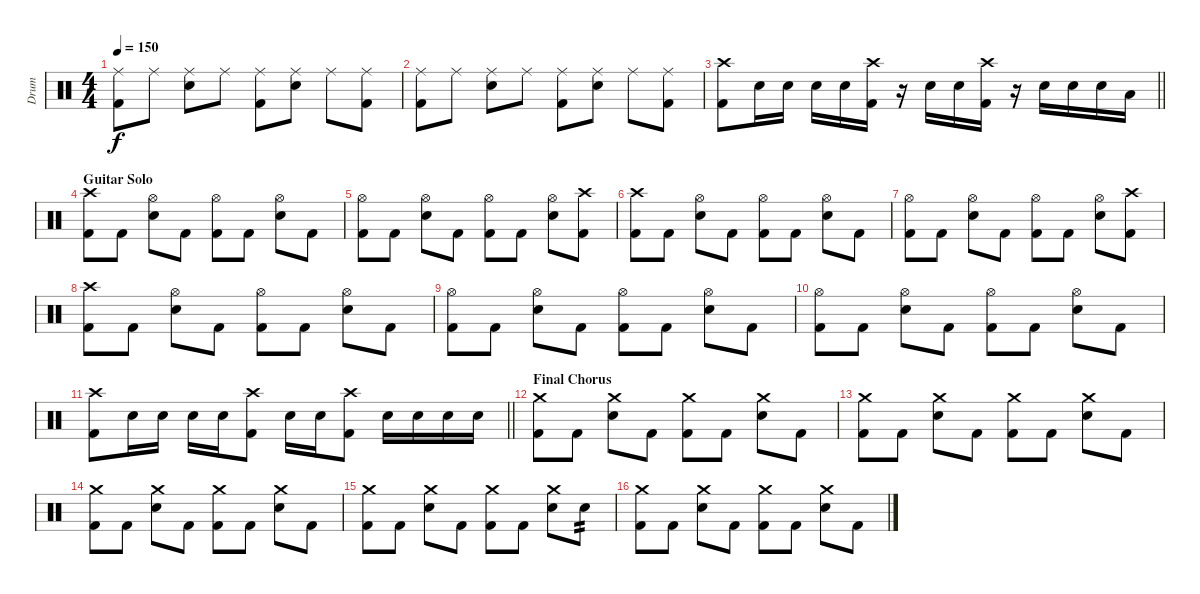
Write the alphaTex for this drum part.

\track ("Drum" "Drum") {instrument percussion}
\staff {score}
\articulation defaults
\ts (4 4)
\tempo 150
\clef neutral
\ks c
("Kick (hit) 2" "Ride (middle)").8{dy f} "Ride (middle)".8 ("Electric Snare (hit)" "Ride (middle)").8 "Ride (middle)".8 ("Kick (hit) 2" "Ride (middle)").8 ("Electric Snare (hit)" "Ride (middle)").8 "Ride (middle)".8 ("Kick (hit) 2" "Ride (middle)").8 |
("Kick (hit) 2" "Ride (middle)").8 "Ride (middle)".8 ("Electric Snare (hit)" "Ride (middle)").8 "Ride (middle)".8 ("Kick (hit) 2" "Ride (middle)").8 ("Electric Snare (hit)" "Ride (middle)").8 "Ride (middle)".8 ("Kick (hit) 2" "Ride (middle)").8 |
\barLineRight lightlight
("Kick (hit) 2" "Crash high (hit)").8 "Electric Snare (hit)".16 "Electric Snare (hit)".16 "Electric Snare (hit)".16 "Electric Snare (hit)".16 ("Kick (hit) 2" "Crash high (hit)").16 r.16 "Electric Snare (hit)".16 "Electric Snare (hit)".16 ("Kick (hit) 2" "Crash high (hit)").16 r.16 "Electric Snare (hit)".16 "Electric Snare (hit)".16 "Electric Snare (hit)".16 "Low Floor Tom (hit)".16 |
\section ("" "Guitar Solo")
("Kick (hit) 2" "Crash high (hit)").8 "Kick (hit) 2".8 ("Electric Snare (hit)" "Hi-Hat (open)").8 "Kick (hit) 2".8 ("Kick (hit) 2" "Hi-Hat (open)").8 "Kick (hit) 2".8 ("Electric Snare (hit)" "Hi-Hat (open)").8 "Kick (hit) 2".8 |
("Kick (hit) 2" "Hi-Hat (open)").8 "Kick (hit) 2".8 ("Electric Snare (hit)" "Hi-Hat (open)").8 "Kick (hit) 2".8 ("Kick (hit) 2" "Hi-Hat (open)").8 "Kick (hit) 2".8 ("Electric Snare (hit)" "Hi-Hat (open)").8 ("Kick (hit) 2" "Crash high (hit)").8 |
("Kick (hit) 2" "Crash high (hit)").8 "Kick (hit) 2".8 ("Electric Snare (hit)" "Hi-Hat (open)").8 "Kick (hit) 2".8 ("Kick (hit) 2" "Hi-Hat (open)").8 "Kick (hit) 2".8 ("Electric Snare (hit)" "Hi-Hat (open)").8 "Kick (hit) 2".8 |
("Kick (hit) 2" "Hi-Hat (open)").8 "Kick (hit) 2".8 ("Electric Snare (hit)" "Hi-Hat (open)").8 "Kick (hit) 2".8 ("Kick (hit) 2" "Hi-Hat (open)").8 "Kick (hit) 2".8 ("Electric Snare (hit)" "Hi-Hat (open)").8 ("Kick (hit) 2" "Crash high (hit)").8 |
("Kick (hit) 2" "Crash high (hit)").8 "Kick (hit) 2".8 ("Electric Snare (hit)" "Hi-Hat (open)").8 "Kick (hit) 2".8 ("Kick (hit) 2" "Hi-Hat (open)").8 "Kick (hit) 2".8 ("Electric Snare (hit)" "Hi-Hat (open)").8 "Kick (hit) 2".8 |
("Kick (hit) 2" "Hi-Hat (open)").8 "Kick (hit) 2".8 ("Electric Snare (hit)" "Hi-Hat (open)").8 "Kick (hit) 2".8 ("Kick (hit) 2" "Hi-Hat (open)").8 "Kick (hit) 2".8 ("Electric Snare (hit)" "Hi-Hat (open)").8 "Kick (hit) 2".8 |
("Kick (hit) 2" "Hi-Hat (open)").8 "Kick (hit) 2".8 ("Electric Snare (hit)" "Hi-Hat (open)").8 "Kick (hit) 2".8 ("Kick (hit) 2" "Hi-Hat (open)").8 "Kick (hit) 2".8 ("Electric Snare (hit)" "Hi-Hat (open)").8 "Kick (hit) 2".8 |
\barLineRight lightlight
("Kick (hit) 2" "Crash high (hit)").8 "Electric Snare (hit)".16 "Electric Snare (hit)".16 "Electric Snare (hit)".16 "Electric Snare (hit)".16 ("Kick (hit) 2" "Crash high (hit)").8 "Electric Snare (hit)".16 "Electric Snare (hit)".16 ("Kick (hit) 2" "Crash high (hit)").8 "Electric Snare (hit)".16 "Electric Snare (hit)".16 "Electric Snare (hit)".16 "Electric Snare (hit)".16 |
\section ("" "Final Chorus")
("Kick (hit) 2" "Crash medium (hit)").8 "Kick (hit) 2".8 ("Electric Snare (hit)" "Crash medium (hit)").8 "Kick (hit) 2".8 ("Kick (hit) 2" "Crash medium (hit)").8 "Kick (hit) 2".8 ("Electric Snare (hit)" "Crash medium (hit)").8 "Kick (hit) 2".8 |
("Kick (hit) 2" "Crash medium (hit)").8 "Kick (hit) 2".8 ("Electric Snare (hit)" "Crash medium (hit)").8 "Kick (hit) 2".8 ("Kick (hit) 2" "Crash medium (hit)").8 "Kick (hit) 2".8 ("Electric Snare (hit)" "Crash medium (hit)").8 "Kick (hit) 2".8 |
("Kick (hit) 2" "Crash medium (hit)").8 "Kick (hit) 2".8 ("Electric Snare (hit)" "Crash medium (hit)").8 "Kick (hit) 2".8 ("Kick (hit) 2" "Crash medium (hit)").8 "Kick (hit) 2".8 ("Electric Snare (hit)" "Crash medium (hit)").8 "Kick (hit) 2".8 |
("Kick (hit) 2" "Crash medium (hit)").8 "Kick (hit) 2".8 ("Electric Snare (hit)" "Crash medium (hit)").8 "Kick (hit) 2".8 ("Kick (hit) 2" "Crash medium (hit)").8 "Kick (hit) 2".8 ("Electric Snare (hit)" "Crash medium (hit)").8 "Electric Snare (hit)".8{tp 2} |
("Kick (hit) 2" "Crash medium (hit)").8 "Kick (hit) 2".8 ("Electric Snare (hit)" "Crash medium (hit)").8 "Kick (hit) 2".8 ("Kick (hit) 2" "Crash medium (hit)").8 "Kick (hit) 2".8 ("Electric Snare (hit)" "Crash medium (hit)").8 "Kick (hit) 2".8
